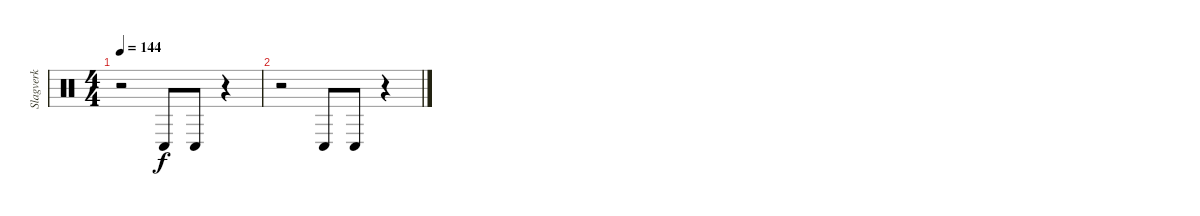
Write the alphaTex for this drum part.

\track ("Slagverk" "Slagverk") {instrument percussion}
\staff {score}
\articulation defaults
\ts (4 4)
\tempo 144
\clef neutral
\ks c
r.2{dy f} "Conga low (hit)".8 "Conga low (hit)".8 r.4 |
r.2 "Conga low (hit)".8 "Conga low (hit)".8 r.4
